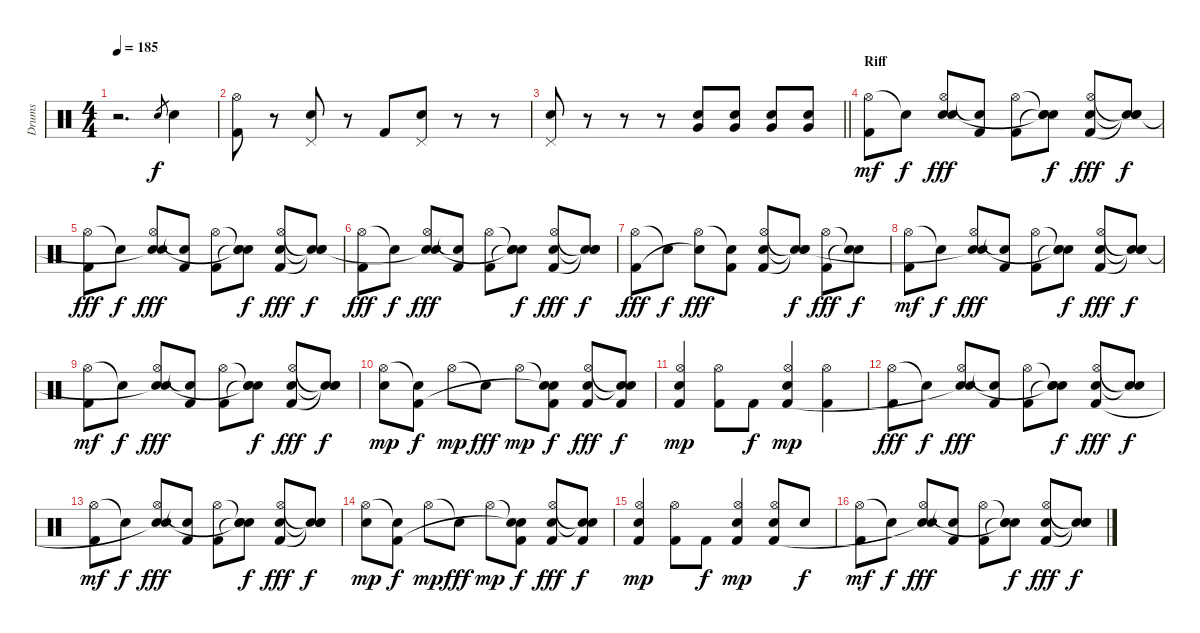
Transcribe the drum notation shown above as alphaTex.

\track ("Drums" "Drums") {instrument percussion}
\staff {score}
\articulation defaults
\ts (4 4)
\tempo 185
\clef neutral
\ks c
r.2{d dy f} "Electric Snare (hit)".8{gr} "Electric Snare (hit)".4 |
("Hi-Hat (open)" "Kick (hit) 2").8 r.8 ("Pedal Hi-Hat (hit)" "Electric Snare (hit)").8 r.8 "Kick (hit) 2".8 ("Pedal Hi-Hat (hit)" "Electric Snare (hit)").8 r.8 r.8 |
\barLineRight lightlight
("Pedal Hi-Hat (hit)" "Electric Snare (hit)").8 r.8 r.8 r.8 ("Electric Snare (hit)" "Very Low Tom (hit)").8 ("Electric Snare (hit)" "Very Low Tom (hit)").8 ("Electric Snare (hit)" "Very Low Tom (hit)").8 ("Electric Snare (hit)" "Very Low Tom (hit)").8 |
\section ("" "Riff")
("Hi-Hat (open)" "Kick (hit) 2").8{dy mf} "Snare (hit)"{t}.8{dy f} ("Hi-Hat (open)" "Electric Snare (hit)" "Snare (hit)").8{dy fff} ("Snare (hit)"{t} "Kick (hit) 2").8 ("Hi-Hat (open)" "Kick (hit) 2").8 ("Snare (hit)"{t} "Snare (hit)"{t} "Snare (hit)"{t}).8{dy f} ("Hi-Hat (open)" "Electric Snare (hit)" "Kick (hit) 2").8{dy fff} ("Snare (hit)"{t} "Snare (hit)"{t} "Snare (hit)"{t}).8{dy f} |
("Hi-Hat (open)" "Kick (hit) 2").8{dy fff} "Snare (hit)"{t}.8{dy f} ("Hi-Hat (open)" "Electric Snare (hit)" "Snare (hit)"{t}).8{dy fff} ("Snare (hit)"{t} "Kick (hit) 2").8 ("Hi-Hat (open)" "Kick (hit) 2").8 ("Snare (hit)"{t} "Snare (hit)"{t} "Snare (hit)"{t}).8{dy f} ("Hi-Hat (open)" "Electric Snare (hit)" "Kick (hit) 2").8{dy fff} ("Snare (hit)"{t} "Snare (hit)"{t} "Snare (hit)"{t}).8{dy f} |
("Hi-Hat (open)" "Kick (hit) 2").8{dy fff} "Snare (hit)"{t}.8{dy f} ("Hi-Hat (open)" "Electric Snare (hit)" "Snare (hit)"{t}).8{dy fff} ("Snare (hit)"{t} "Kick (hit) 2").8 ("Hi-Hat (open)" "Kick (hit) 2").8 ("Snare (hit)"{t} "Snare (hit)"{t} "Snare (hit)"{t}).8{dy f} ("Hi-Hat (open)" "Electric Snare (hit)" "Kick (hit) 2").8{dy fff} ("Snare (hit)"{t} "Snare (hit)"{t} "Snare (hit)"{t}).8{dy f} |
("Hi-Hat (open)" "Kick (hit) 2").8{dy fff} "Snare (hit)"{t}.8{dy f} ("Hi-Hat (open)" "Snare (hit)"{t}).8{dy fff} ("Snare (hit)"{t} "Kick (hit) 2").8 ("Hi-Hat (open)" "Electric Snare (hit)" "Kick (hit) 2").8 ("Snare (hit)"{t} "Snare (hit)"{t} "Snare (hit)"{t}).8{dy f} ("Hi-Hat (open)" "Kick (hit) 2").8{dy fff} ("Snare (hit)"{t} "Snare (hit)"{t}).8{dy f} |
("Hi-Hat (open)" "Kick (hit) 2").8{dy mf} "Snare (hit)"{t}.8{dy f} ("Hi-Hat (open)" "Electric Snare (hit)" "Snare (hit)"{t}).8{dy fff} ("Snare (hit)"{t} "Kick (hit) 2").8 ("Hi-Hat (open)" "Kick (hit) 2").8 ("Snare (hit)"{t} "Snare (hit)"{t} "Snare (hit)"{t}).8{dy f} ("Hi-Hat (open)" "Electric Snare (hit)" "Kick (hit) 2").8{dy fff} ("Snare (hit)"{t} "Snare (hit)"{t} "Snare (hit)"{t}).8{dy f} |
("Hi-Hat (open)" "Kick (hit) 2").8{dy mf} "Snare (hit)"{t}.8{dy f} ("Hi-Hat (open)" "Electric Snare (hit)" "Snare (hit)"{t}).8{dy fff} ("Snare (hit)"{t} "Kick (hit) 2").8 ("Hi-Hat (open)" "Kick (hit) 2").8 ("Snare (hit)"{t} "Snare (hit)"{t} "Snare (hit)"{t}).8{dy f} ("Hi-Hat (open)" "Electric Snare (hit)" "Kick (hit) 2").8{dy fff} ("Snare (hit)"{t} "Snare (hit)"{t} "Snare (hit)"{t}).8{dy f} |
("Hi-Hat (open)" "Electric Snare (hit)").8{dy mp} ("Snare (hit)"{t} "Kick (hit) 2").8{dy f} "Hi-Hat (open)".8{dy mp} "Snare (hit)"{t}.8{dy fff} "Hi-Hat (open)".8{dy mp} ("Snare (hit)"{t} "Snare (hit)"{t} "Kick (hit) 2").8{dy f} ("Hi-Hat (open)" "Electric Snare (hit)" "Kick (hit) 2").8{dy fff} ("Snare (hit)"{t} "Snare (hit)"{t} "Kick (hit) 2").8{dy f} |
("Hi-Hat (open)" "Electric Snare (hit)" "Kick (hit) 2").4{dy mp} ("Hi-Hat (open)" "Kick (hit) 2").8 "Kick (hit) 2".8{dy f} ("Hi-Hat (open)" "Electric Snare (hit)" "Kick (hit) 2").4{dy mp} ("Hi-Hat (open)" "Kick (hit) 2").4 |
("Hi-Hat (open)" "Kick (hit) 2").8{dy fff} "Snare (hit)"{t}.8{dy f} ("Hi-Hat (open)" "Electric Snare (hit)" "Snare (hit)"{t}).8{dy fff} ("Snare (hit)"{t} "Kick (hit) 2").8 ("Hi-Hat (open)" "Kick (hit) 2").8 ("Snare (hit)"{t} "Snare (hit)"{t} "Snare (hit)"{t}).8{dy f} ("Hi-Hat (open)" "Electric Snare (hit)" "Kick (hit) 2").8{dy fff} ("Snare (hit)"{t} "Snare (hit)"{t}).8{dy f} |
("Hi-Hat (open)" "Kick (hit) 2").8{dy mf} "Snare (hit)"{t}.8{dy f} ("Hi-Hat (open)" "Electric Snare (hit)" "Snare (hit)"{t}).8{dy fff} ("Snare (hit)"{t} "Kick (hit) 2").8 ("Hi-Hat (open)" "Kick (hit) 2").8 ("Snare (hit)"{t} "Snare (hit)"{t} "Snare (hit)"{t}).8{dy f} ("Hi-Hat (open)" "Electric Snare (hit)" "Kick (hit) 2").8{dy fff} ("Snare (hit)"{t} "Snare (hit)"{t} "Snare (hit)"{t}).8{dy f} |
("Hi-Hat (open)" "Electric Snare (hit)").8{dy mp} ("Snare (hit)"{t} "Kick (hit) 2").8{dy f} "Hi-Hat (open)".8{dy mp} "Snare (hit)"{t}.8{dy fff} "Hi-Hat (open)".8{dy mp} ("Snare (hit)"{t} "Snare (hit)"{t} "Kick (hit) 2").8{dy f} ("Hi-Hat (open)" "Electric Snare (hit)" "Kick (hit) 2").8{dy fff} ("Snare (hit)"{t} "Snare (hit)"{t} "Kick (hit) 2").8{dy f} |
("Hi-Hat (open)" "Electric Snare (hit)" "Kick (hit) 2").4{dy mp} ("Hi-Hat (open)" "Kick (hit) 2").8 "Kick (hit) 2".8{dy f} ("Hi-Hat (open)" "Electric Snare (hit)" "Kick (hit) 2").4{dy mp} ("Hi-Hat (open)" "Electric Snare (hit)" "Kick (hit) 2").8 "Electric Snare (hit)".8{dy f} |
("Hi-Hat (open)" "Kick (hit) 2").8{dy mf} "Snare (hit)"{t}.8{dy f} ("Hi-Hat (open)" "Electric Snare (hit)" "Snare (hit)"{t}).8{dy fff} ("Snare (hit)"{t} "Kick (hit) 2").8 ("Hi-Hat (open)" "Kick (hit) 2").8 ("Snare (hit)"{t} "Snare (hit)"{t} "Snare (hit)"{t}).8{dy f} ("Hi-Hat (open)" "Electric Snare (hit)" "Kick (hit) 2").8{dy fff} ("Snare (hit)"{t} "Snare (hit)"{t} "Snare (hit)"{t}).8{dy f}
